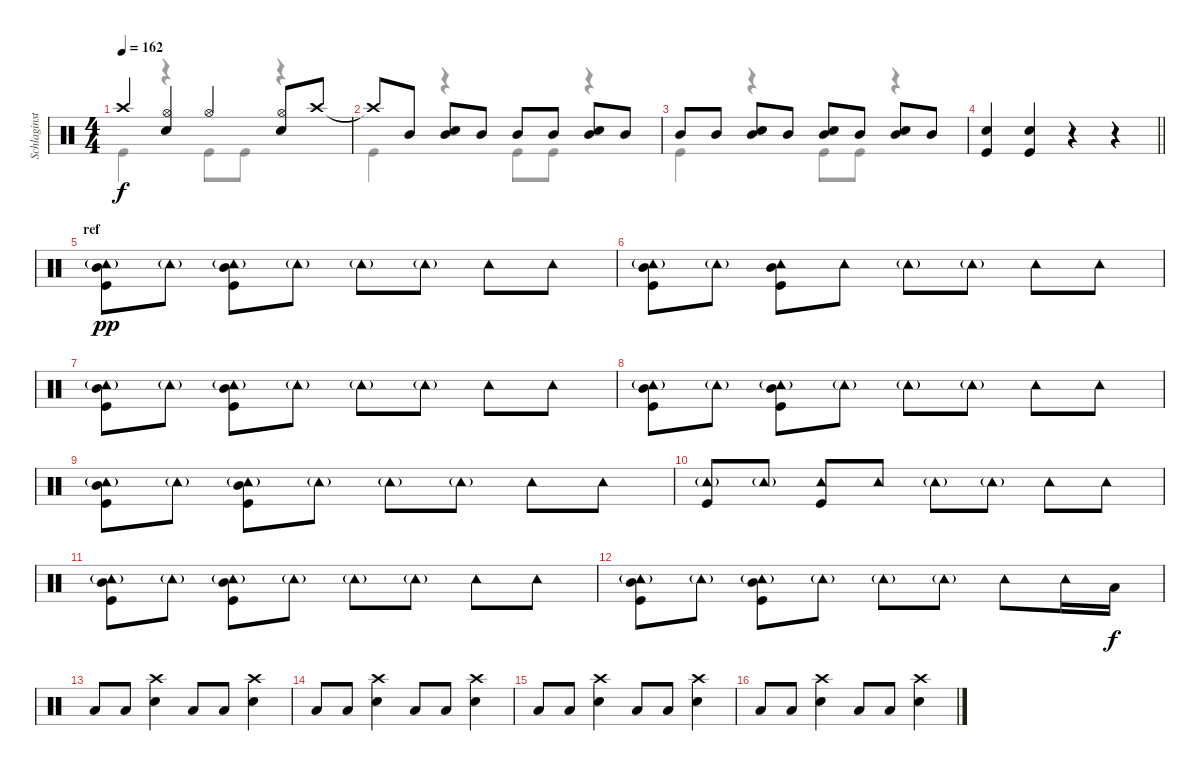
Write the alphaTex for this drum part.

\track ("Schlaginstrumente - Auswahl" "Schlaginst") {instrument percussion}
\staff {score}
\articulation defaults
\voice
\ts (4 4)
\tempo 162
\clef neutral
\ks c "Crash high (hit)"{t}.4{dy f}
("Hi-Hat (open)" "Snare (hit) 2").4 "Hi-Hat (open)".4 ("Hi-Hat (open)" "Snare (hit) 2").8 "Crash high (hit)".8 |
"Crash high (hit)"{t}.8 "Mid Tom (hit)".8 ("Mid Tom (hit)" "Snare (hit) 2").8 "Mid Tom (hit)".8 "Mid Tom (hit)".8 "Mid Tom (hit)".8 ("Mid Tom (hit)" "Snare (hit) 2").8 "Mid Tom (hit)".8 |
"Mid Tom (hit)".8 "Mid Tom (hit)".8 ("Mid Tom (hit)" "Snare (hit) 2").8 "Mid Tom (hit)".8 ("Mid Tom (hit)" "Snare (hit) 2").8 "Mid Tom (hit)".8 ("Mid Tom (hit)" "Snare (hit) 2").8 "Mid Tom (hit)".8 |
\barLineRight lightlight
("Kick (hit)" "Snare (hit) 2").4 ("Kick (hit)" "Snare (hit) 2").4 r.4 r.4 |
\section ("" "ref")
("Tambourine (hit)"{g} "Kick (hit)" "Mid Tom (hit)").8{dy pp} "Tambourine (hit)"{g}.8 ("Tambourine (hit)"{g} "Kick (hit)" "Mid Tom (hit)").8 "Tambourine (hit)"{g}.8 "Tambourine (hit)"{g}.8 "Tambourine (hit)"{g}.8 "Tambourine (hit)".8 "Tambourine (hit)".8 |
("Tambourine (hit)"{g} "Mid Tom (hit)" "Kick (hit)").8 "Tambourine (hit)"{g}.8 ("Tambourine (hit)" "Mid Tom (hit)" "Kick (hit)").8 "Tambourine (hit)".8 "Tambourine (hit)"{g}.8 "Tambourine (hit)"{g}.8 "Tambourine (hit)".8 "Tambourine (hit)".8 |
("Tambourine (hit)"{g} "Kick (hit)" "Mid Tom (hit)").8 "Tambourine (hit)"{g}.8 ("Tambourine (hit)"{g} "Kick (hit)" "Mid Tom (hit)").8 "Tambourine (hit)"{g}.8 "Tambourine (hit)"{g}.8 "Tambourine (hit)"{g}.8 "Tambourine (hit)".8 "Tambourine (hit)".8 |
("Tambourine (hit)"{g} "Kick (hit)" "Mid Tom (hit)").8 "Tambourine (hit)"{g}.8 ("Tambourine (hit)"{g} "Kick (hit)" "Mid Tom (hit)").8 "Tambourine (hit)"{g}.8 "Tambourine (hit)"{g}.8 "Tambourine (hit)"{g}.8 "Tambourine (hit)".8 "Tambourine (hit)".8 |
("Tambourine (hit)"{g} "Kick (hit)" "Mid Tom (hit)").8 "Tambourine (hit)"{g}.8 ("Tambourine (hit)"{g} "Kick (hit)" "Mid Tom (hit)").8 "Tambourine (hit)"{g}.8 "Tambourine (hit)"{g}.8 "Tambourine (hit)"{g}.8 "Tambourine (hit)".8 "Tambourine (hit)".8 |
("Tambourine (hit)"{g} "Kick (hit)").8 "Tambourine (hit)"{g}.8 ("Tambourine (hit)" "Kick (hit)").8 "Tambourine (hit)".8 "Tambourine (hit)"{g}.8 "Tambourine (hit)"{g}.8 "Tambourine (hit)".8 "Tambourine (hit)".8 |
("Tambourine (hit)"{g} "Kick (hit)" "Mid Tom (hit)").8 "Tambourine (hit)"{g}.8 ("Tambourine (hit)"{g} "Kick (hit)" "Mid Tom (hit)").8 "Tambourine (hit)"{g}.8 "Tambourine (hit)"{g}.8 "Tambourine (hit)"{g}.8 "Tambourine (hit)".8 "Tambourine (hit)".8 |
("Tambourine (hit)"{g} "Kick (hit)" "Mid Tom (hit)").8 "Tambourine (hit)"{g}.8 ("Tambourine (hit)"{g} "Kick (hit)" "Mid Tom (hit)").8 "Tambourine (hit)"{g}.8 "Tambourine (hit)"{g}.8 "Tambourine (hit)"{g}.8 "Tambourine (hit)".8 "Tambourine (hit)".16 "Low Tom (hit)".16{dy f} |
"Low Floor Tom (hit)".8 "Low Floor Tom (hit)".8 ("Snare (hit) 2" "Crash high (hit)").4 "Low Floor Tom (hit)".8 "Low Floor Tom (hit)".8 ("Crash high (hit)" "Snare (hit) 2").4 |
"Low Floor Tom (hit)".8 "Low Floor Tom (hit)".8 ("Snare (hit) 2" "Crash high (hit)").4 "Low Floor Tom (hit)".8 "Low Floor Tom (hit)".8 ("Crash high (hit)" "Snare (hit) 2").4 |
"Low Floor Tom (hit)".8 "Low Floor Tom (hit)".8 ("Snare (hit) 2" "Crash high (hit)").4 "Low Floor Tom (hit)".8 "Low Floor Tom (hit)".8 ("Crash high (hit)" "Snare (hit) 2").4 |
"Low Floor Tom (hit)".8 "Low Floor Tom (hit)".8 ("Snare (hit) 2" "Crash high (hit)").4 "Low Floor Tom (hit)".8 "Low Floor Tom (hit)".8 ("Crash high (hit)" "Snare (hit) 2").4
\voice
\clef neutral
\ottava regular
\simile none
\ks c "Kick (hit)".4{dy f}
r.4 "Kick (hit)".8 "Kick (hit)".8 r.4 |
"Kick (hit)".4 r.4 "Kick (hit)".8 "Kick (hit)".8 r.4 |
"Kick (hit)".4 r.4 "Kick (hit)".8 "Kick (hit)".8 r.4 |
\barLineRight lightlight
|
|
|
|
|
|
|
|
|
|
|
|
